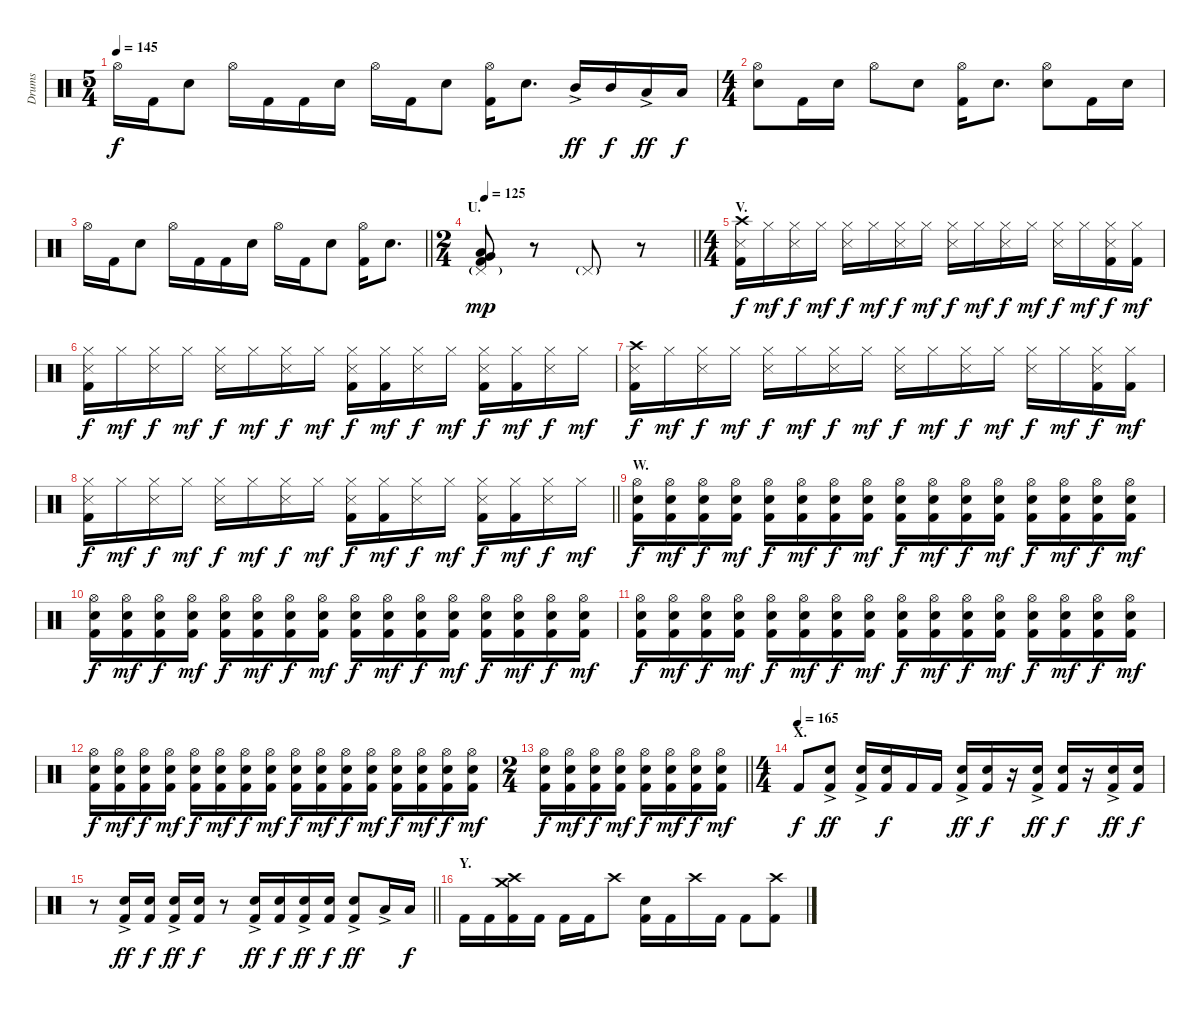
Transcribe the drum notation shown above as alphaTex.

\track ("Drums" "Drums") {instrument percussion}
\staff {score}
\articulation defaults
\ts (5 4)
\tempo 145
\clef neutral
\ks c "Hi-Hat (open)".16{dy f} "Kick (hit) 2".16 "Electric Snare (hit)".8 "Hi-Hat (open)".16 "Kick (hit) 2".16 "Kick (hit) 2".16 "Electric Snare (hit)".16 "Hi-Hat (open)".16 "Kick (hit) 2".16 "Electric Snare (hit)".8
("Hi-Hat (open)" "Kick (hit) 2").16 "Electric Snare (hit)".8{d} "Mid Tom (hit)"{ac}.16{dy ff} "Mid Tom (hit)".16{dy f} "Low Tom (hit)"{ac}.16{dy ff} "Low Tom (hit)".16{dy f} |
\ts (4 4)
("Hi-Hat (open)" "Electric Snare (hit)").8 "Kick (hit) 2".16 "Electric Snare (hit)".16 "Hi-Hat (open)".8 "Electric Snare (hit)".8 ("Hi-Hat (open)" "Kick (hit) 2").16 "Electric Snare (hit)".8{d} ("Hi-Hat (open)" "Electric Snare (hit)").8 "Kick (hit) 2".16 "Electric Snare (hit)".16 |
\barLineRight lightlight "Hi-Hat (open)".16 "Kick (hit) 2".16 "Electric Snare (hit)".8 "Hi-Hat (open)".16 "Kick (hit) 2".16 "Kick (hit) 2".16 "Electric Snare (hit)".16 "Hi-Hat (open)".16 "Kick (hit) 2".16 "Electric Snare (hit)".8
("Hi-Hat (open)" "Kick (hit) 2").16 "Electric Snare (hit)".8{d} |
\ts (2 4)
\section ("" "U.")
\tempo 125
\barLineRight lightlight
("Pedal Hi-Hat (hit)"{g} "Very Low Tom (hit)" "Low Floor Tom (hit)" "Kick (hit) 2").8{dy mp} r.8 "Pedal Hi-Hat (hit)"{g}.8 r.8 |
\ts (4 4)
\section ("" "V.")
("Crash high (hit)" "Snare (side stick) 3" "Kick (hit) 2").16{dy f} "Hi-Hat (closed)".16{dy mf} ("Hi-Hat (closed)" "Snare (side stick) 3").16{dy f} "Hi-Hat (closed)".16{dy mf} ("Hi-Hat (closed)" "Snare (side stick) 3").16{dy f} "Hi-Hat (closed)".16{dy mf} ("Hi-Hat (closed)" "Snare (side stick) 3").16{dy f} "Hi-Hat (closed)".16{dy mf} ("Hi-Hat (closed)" "Snare (side stick) 3").16{dy f} "Hi-Hat (closed)".16{dy mf} ("Hi-Hat (closed)" "Snare (side stick) 3").16{dy f} "Hi-Hat (closed)".16{dy mf} ("Hi-Hat (closed)" "Snare (side stick) 3").16{dy f} "Hi-Hat (closed)".16{dy mf} ("Hi-Hat (closed)" "Snare (side stick) 3" "Kick (hit) 2").16{dy f} ("Hi-Hat (closed)" "Kick (hit) 2").16{dy mf} |
("Hi-Hat (closed)" "Snare (side stick) 3" "Kick (hit) 2").16{dy f} "Hi-Hat (closed)".16{dy mf} ("Hi-Hat (closed)" "Snare (side stick) 3").16{dy f} "Hi-Hat (closed)".16{dy mf} ("Hi-Hat (closed)" "Snare (side stick) 3").16{dy f} "Hi-Hat (closed)".16{dy mf} ("Hi-Hat (closed)" "Snare (side stick) 3").16{dy f} "Hi-Hat (closed)".16{dy mf} ("Hi-Hat (closed)" "Snare (side stick) 3" "Kick (hit) 2").16{dy f} ("Hi-Hat (closed)" "Kick (hit) 2").16{dy mf} ("Hi-Hat (closed)" "Snare (side stick) 3").16{dy f} "Hi-Hat (closed)".16{dy mf} ("Hi-Hat (closed)" "Snare (side stick) 3" "Kick (hit) 2").16{dy f} ("Hi-Hat (closed)" "Kick (hit) 2").16{dy mf} ("Hi-Hat (closed)" "Snare (side stick) 3").16{dy f} "Hi-Hat (closed)".16{dy mf} |
("Crash high (hit)" "Snare (side stick) 3" "Kick (hit) 2").16{dy f} "Hi-Hat (closed)".16{dy mf} ("Hi-Hat (closed)" "Snare (side stick) 3").16{dy f} "Hi-Hat (closed)".16{dy mf} ("Hi-Hat (closed)" "Snare (side stick) 3").16{dy f} "Hi-Hat (closed)".16{dy mf} ("Hi-Hat (closed)" "Snare (side stick) 3").16{dy f} "Hi-Hat (closed)".16{dy mf} ("Hi-Hat (closed)" "Snare (side stick) 3").16{dy f} "Hi-Hat (closed)".16{dy mf} ("Hi-Hat (closed)" "Snare (side stick) 3").16{dy f} "Hi-Hat (closed)".16{dy mf} ("Hi-Hat (closed)" "Snare (side stick) 3").16{dy f} "Hi-Hat (closed)".16{dy mf} ("Hi-Hat (closed)" "Snare (side stick) 3" "Kick (hit) 2").16{dy f} ("Hi-Hat (closed)" "Kick (hit) 2").16{dy mf} |
\barLineRight lightlight
("Hi-Hat (closed)" "Snare (side stick) 3" "Kick (hit) 2").16{dy f} "Hi-Hat (closed)".16{dy mf} ("Hi-Hat (closed)" "Snare (side stick) 3").16{dy f} "Hi-Hat (closed)".16{dy mf} ("Hi-Hat (closed)" "Snare (side stick) 3").16{dy f} "Hi-Hat (closed)".16{dy mf} ("Hi-Hat (closed)" "Snare (side stick) 3").16{dy f} "Hi-Hat (closed)".16{dy mf} ("Hi-Hat (closed)" "Snare (side stick) 3" "Kick (hit) 2").16{dy f} ("Hi-Hat (closed)" "Kick (hit) 2").16{dy mf} ("Hi-Hat (closed)" "Snare (side stick) 3").16{dy f} "Hi-Hat (closed)".16{dy mf} ("Hi-Hat (closed)" "Snare (side stick) 3" "Kick (hit) 2").16{dy f} ("Hi-Hat (closed)" "Kick (hit) 2").16{dy mf} ("Hi-Hat (closed)" "Snare (side stick) 3").16{dy f} "Hi-Hat (closed)".16{dy mf} |
\section ("" "W.")
("Hi-Hat (open)" "Electric Snare (hit)" "Kick (hit) 2").16{dy f} ("Hi-Hat (open)" "Electric Snare (hit)" "Kick (hit) 2").16{dy mf} ("Hi-Hat (open)" "Electric Snare (hit)" "Kick (hit) 2").16{dy f} ("Hi-Hat (open)" "Electric Snare (hit)" "Kick (hit) 2").16{dy mf} ("Hi-Hat (open)" "Electric Snare (hit)" "Kick (hit) 2").16{dy f} ("Hi-Hat (open)" "Electric Snare (hit)" "Kick (hit) 2").16{dy mf} ("Hi-Hat (open)" "Electric Snare (hit)" "Kick (hit) 2").16{dy f} ("Hi-Hat (open)" "Electric Snare (hit)" "Kick (hit) 2").16{dy mf} ("Hi-Hat (open)" "Electric Snare (hit)" "Kick (hit) 2").16{dy f} ("Hi-Hat (open)" "Electric Snare (hit)" "Kick (hit) 2").16{dy mf} ("Hi-Hat (open)" "Electric Snare (hit)" "Kick (hit) 2").16{dy f} ("Hi-Hat (open)" "Electric Snare (hit)" "Kick (hit) 2").16{dy mf} ("Hi-Hat (open)" "Electric Snare (hit)" "Kick (hit) 2").16{dy f} ("Hi-Hat (open)" "Electric Snare (hit)" "Kick (hit) 2").16{dy mf} ("Hi-Hat (open)" "Electric Snare (hit)" "Kick (hit) 2").16{dy f} ("Hi-Hat (open)" "Electric Snare (hit)" "Kick (hit) 2").16{dy mf} |
("Hi-Hat (open)" "Electric Snare (hit)" "Kick (hit) 2").16{dy f} ("Hi-Hat (open)" "Electric Snare (hit)" "Kick (hit) 2").16{dy mf} ("Hi-Hat (open)" "Electric Snare (hit)" "Kick (hit) 2").16{dy f} ("Hi-Hat (open)" "Electric Snare (hit)" "Kick (hit) 2").16{dy mf} ("Hi-Hat (open)" "Electric Snare (hit)" "Kick (hit) 2").16{dy f} ("Hi-Hat (open)" "Electric Snare (hit)" "Kick (hit) 2").16{dy mf} ("Hi-Hat (open)" "Electric Snare (hit)" "Kick (hit) 2").16{dy f} ("Hi-Hat (open)" "Electric Snare (hit)" "Kick (hit) 2").16{dy mf} ("Hi-Hat (open)" "Electric Snare (hit)" "Kick (hit) 2").16{dy f} ("Hi-Hat (open)" "Electric Snare (hit)" "Kick (hit) 2").16{dy mf} ("Hi-Hat (open)" "Electric Snare (hit)" "Kick (hit) 2").16{dy f} ("Hi-Hat (open)" "Electric Snare (hit)" "Kick (hit) 2").16{dy mf} ("Hi-Hat (open)" "Electric Snare (hit)" "Kick (hit) 2").16{dy f} ("Hi-Hat (open)" "Electric Snare (hit)" "Kick (hit) 2").16{dy mf} ("Hi-Hat (open)" "Electric Snare (hit)" "Kick (hit) 2").16{dy f} ("Hi-Hat (open)" "Electric Snare (hit)" "Kick (hit) 2").16{dy mf} |
("Hi-Hat (open)" "Electric Snare (hit)" "Kick (hit) 2").16{dy f} ("Hi-Hat (open)" "Electric Snare (hit)" "Kick (hit) 2").16{dy mf} ("Hi-Hat (open)" "Electric Snare (hit)" "Kick (hit) 2").16{dy f} ("Hi-Hat (open)" "Electric Snare (hit)" "Kick (hit) 2").16{dy mf} ("Hi-Hat (open)" "Electric Snare (hit)" "Kick (hit) 2").16{dy f} ("Hi-Hat (open)" "Electric Snare (hit)" "Kick (hit) 2").16{dy mf} ("Hi-Hat (open)" "Electric Snare (hit)" "Kick (hit) 2").16{dy f} ("Hi-Hat (open)" "Electric Snare (hit)" "Kick (hit) 2").16{dy mf} ("Hi-Hat (open)" "Electric Snare (hit)" "Kick (hit) 2").16{dy f} ("Hi-Hat (open)" "Electric Snare (hit)" "Kick (hit) 2").16{dy mf} ("Hi-Hat (open)" "Electric Snare (hit)" "Kick (hit) 2").16{dy f} ("Hi-Hat (open)" "Electric Snare (hit)" "Kick (hit) 2").16{dy mf} ("Hi-Hat (open)" "Electric Snare (hit)" "Kick (hit) 2").16{dy f} ("Hi-Hat (open)" "Electric Snare (hit)" "Kick (hit) 2").16{dy mf} ("Hi-Hat (open)" "Electric Snare (hit)" "Kick (hit) 2").16{dy f} ("Hi-Hat (open)" "Electric Snare (hit)" "Kick (hit) 2").16{dy mf} |
("Hi-Hat (open)" "Electric Snare (hit)" "Kick (hit) 2").16{dy f} ("Hi-Hat (open)" "Electric Snare (hit)" "Kick (hit) 2").16{dy mf} ("Hi-Hat (open)" "Electric Snare (hit)" "Kick (hit) 2").16{dy f} ("Hi-Hat (open)" "Electric Snare (hit)" "Kick (hit) 2").16{dy mf} ("Hi-Hat (open)" "Electric Snare (hit)" "Kick (hit) 2").16{dy f} ("Hi-Hat (open)" "Electric Snare (hit)" "Kick (hit) 2").16{dy mf} ("Hi-Hat (open)" "Electric Snare (hit)" "Kick (hit) 2").16{dy f} ("Hi-Hat (open)" "Electric Snare (hit)" "Kick (hit) 2").16{dy mf} ("Hi-Hat (open)" "Electric Snare (hit)" "Kick (hit) 2").16{dy f} ("Hi-Hat (open)" "Electric Snare (hit)" "Kick (hit) 2").16{dy mf} ("Hi-Hat (open)" "Electric Snare (hit)" "Kick (hit) 2").16{dy f} ("Hi-Hat (open)" "Electric Snare (hit)" "Kick (hit) 2").16{dy mf} ("Hi-Hat (open)" "Electric Snare (hit)" "Kick (hit) 2").16{dy f} ("Hi-Hat (open)" "Electric Snare (hit)" "Kick (hit) 2").16{dy mf} ("Hi-Hat (open)" "Electric Snare (hit)" "Kick (hit) 2").16{dy f} ("Hi-Hat (open)" "Electric Snare (hit)" "Kick (hit) 2").16{dy mf} |
\ts (2 4)
\barLineRight lightlight
("Hi-Hat (open)" "Electric Snare (hit)" "Kick (hit) 2").16{dy f} ("Hi-Hat (open)" "Electric Snare (hit)" "Kick (hit) 2").16{dy mf} ("Hi-Hat (open)" "Electric Snare (hit)" "Kick (hit) 2").16{dy f} ("Hi-Hat (open)" "Electric Snare (hit)" "Kick (hit) 2").16{dy mf} ("Hi-Hat (open)" "Electric Snare (hit)" "Kick (hit) 2").16{dy f} ("Hi-Hat (open)" "Electric Snare (hit)" "Kick (hit) 2").16{dy mf} ("Hi-Hat (open)" "Electric Snare (hit)" "Kick (hit) 2").16{dy f} ("Hi-Hat (open)" "Electric Snare (hit)" "Kick (hit) 2").16{dy mf} |
\ts (4 4)
\section ("" "X.")
\tempo (165)
"Kick (hit) 2".8{dy f} ("Electric Snare (hit)"{ac} "Kick (hit) 2").8{dy ff} ("Electric Snare (hit)"{ac} "Kick (hit) 2").16 ("Electric Snare (hit)" "Kick (hit) 2").16{dy f} "Kick (hit) 2".16 "Kick (hit) 2".16 ("Electric Snare (hit)"{ac} "Kick (hit) 2").16{dy ff} ("Electric Snare (hit)" "Kick (hit) 2").16{dy f} r.16 ("Electric Snare (hit)"{ac} "Kick (hit) 2").16{dy ff} ("Electric Snare (hit)" "Kick (hit) 2").16{dy f} r.16 ("Electric Snare (hit)"{ac} "Kick (hit) 2").16{dy ff} ("Electric Snare (hit)" "Kick (hit) 2").16{dy f} |
\barLineRight lightlight
r.8 ("Electric Snare (hit)"{ac} "Kick (hit) 2").16{dy ff} ("Electric Snare (hit)" "Kick (hit) 2").16{dy f} ("Electric Snare (hit)"{ac} "Kick (hit) 2").16{dy ff} ("Electric Snare (hit)" "Kick (hit) 2").16{dy f} r.8 ("Electric Snare (hit)"{ac} "Kick (hit) 2").16{dy ff} ("Electric Snare (hit)" "Kick (hit) 2").16{dy f} ("Electric Snare (hit)"{ac} "Kick (hit) 2").16{dy ff} ("Electric Snare (hit)" "Kick (hit) 2").16{dy f} ("Electric Snare (hit)"{ac} "Kick (hit) 2").8{dy ff} "Low Tom (hit)"{ac}.16 "Low Tom (hit)".16{dy f} |
\section ("" "Y.")
"Kick (hit) 2".16 "Kick (hit) 2".16 ("Crash medium (hit)" "Crash high (hit)" "Kick (hit) 2").16 "Kick (hit) 2".16 "Kick (hit) 2".16 "Kick (hit) 2".16 "Crash high (hit)".8 ("Electric Snare (hit)" "Kick (hit) 2").16 "Kick (hit) 2".16 "Crash high (hit)".16 "Kick (hit) 2".16 "Kick (hit) 2".8 ("Crash high (hit)" "Kick (hit) 2").8
